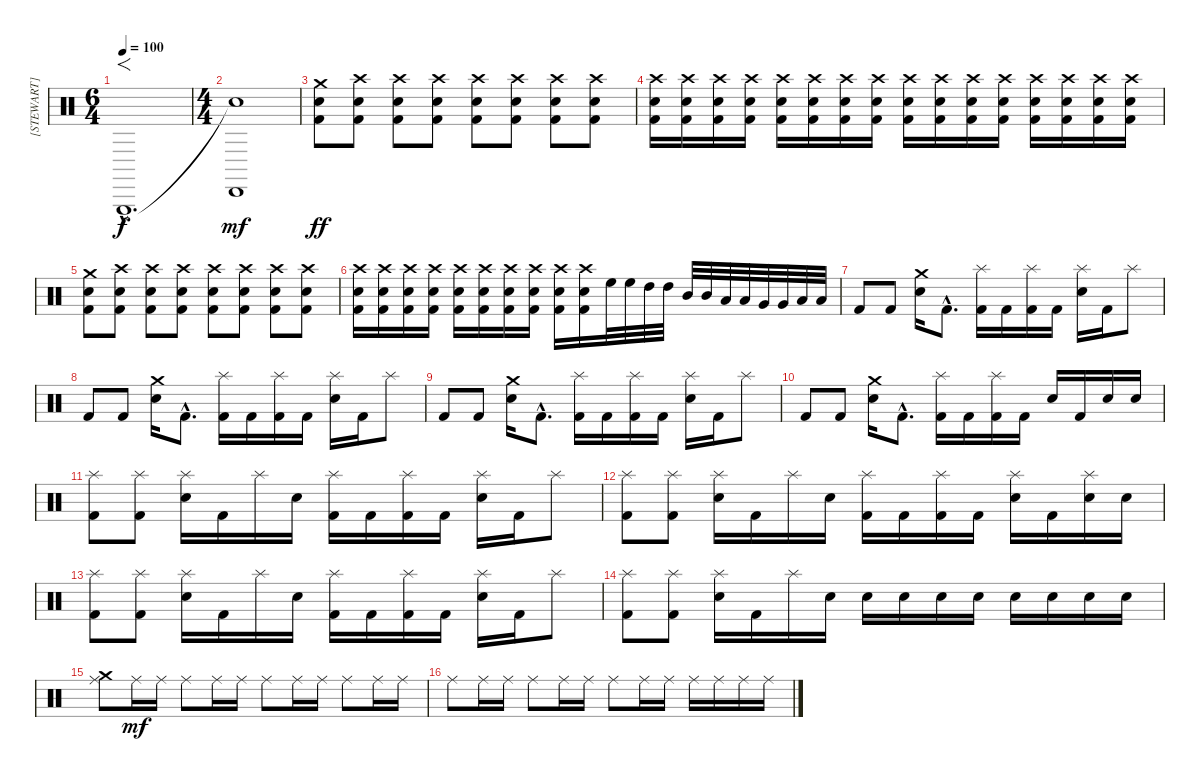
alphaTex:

\track ("[STEWART]" "[STEWART]") {instrument percussion}
\staff {score}
\articulation defaults
\ts (6 4)
\tempo 100
\clef neutral
\ks c "Triangle (hit)"{hac}.1{f d dy f}
|
\ts (4 4)
("Snare (hit)"{t} "Cabasa (hit)").1{dy mf} |
("Crash medium (hit)" "Electric Snare (hit)" "Kick (hit) 2").8{dy ff} ("Crash high (hit)" "Electric Snare (hit)" "Kick (hit) 2").8 ("Crash high (hit)" "Electric Snare (hit)" "Kick (hit) 2").8 ("Crash high (hit)" "Electric Snare (hit)" "Kick (hit) 2").8 ("Crash high (hit)" "Electric Snare (hit)" "Kick (hit) 2").8 ("Crash high (hit)" "Electric Snare (hit)" "Kick (hit) 2").8 ("Crash high (hit)" "Electric Snare (hit)" "Kick (hit) 2").8 ("Crash high (hit)" "Electric Snare (hit)" "Kick (hit) 2").8 |
("Crash high (hit)" "Electric Snare (hit)" "Kick (hit) 2").16 ("Crash high (hit)" "Electric Snare (hit)" "Kick (hit) 2").16 ("Crash high (hit)" "Electric Snare (hit)" "Kick (hit) 2").16 ("Crash high (hit)" "Electric Snare (hit)" "Kick (hit) 2").16 ("Crash high (hit)" "Electric Snare (hit)" "Kick (hit) 2").16 ("Crash high (hit)" "Electric Snare (hit)" "Kick (hit) 2").16 ("Crash high (hit)" "Electric Snare (hit)" "Kick (hit) 2").16 ("Crash high (hit)" "Electric Snare (hit)" "Kick (hit) 2").16 ("Crash high (hit)" "Electric Snare (hit)" "Kick (hit) 2").16 ("Crash high (hit)" "Electric Snare (hit)" "Kick (hit) 2").16 ("Crash high (hit)" "Electric Snare (hit)" "Kick (hit) 2").16 ("Crash high (hit)" "Electric Snare (hit)" "Kick (hit) 2").16 ("Crash high (hit)" "Electric Snare (hit)" "Kick (hit) 2").16 ("Crash high (hit)" "Electric Snare (hit)" "Kick (hit) 2").16 ("Crash high (hit)" "Electric Snare (hit)" "Kick (hit) 2").16 ("Crash high (hit)" "Electric Snare (hit)" "Kick (hit) 2").16 |
("Crash medium (hit)" "Electric Snare (hit)" "Kick (hit) 2").8 ("Crash high (hit)" "Electric Snare (hit)" "Kick (hit) 2").8 ("Crash high (hit)" "Electric Snare (hit)" "Kick (hit) 2").8 ("Crash high (hit)" "Electric Snare (hit)" "Kick (hit) 2").8 ("Crash high (hit)" "Electric Snare (hit)" "Kick (hit) 2").8 ("Crash high (hit)" "Electric Snare (hit)" "Kick (hit) 2").8 ("Crash high (hit)" "Electric Snare (hit)" "Kick (hit) 2").8 ("Crash high (hit)" "Electric Snare (hit)" "Kick (hit) 2").8 |
("Crash high (hit)" "Electric Snare (hit)" "Kick (hit) 2").16 ("Crash high (hit)" "Electric Snare (hit)" "Kick (hit) 2").16 ("Crash high (hit)" "Electric Snare (hit)" "Kick (hit) 2").16 ("Crash high (hit)" "Electric Snare (hit)" "Kick (hit) 2").16 ("Crash high (hit)" "Electric Snare (hit)" "Kick (hit) 2").16 ("Crash high (hit)" "Electric Snare (hit)" "Kick (hit) 2").16 ("Crash high (hit)" "Electric Snare (hit)" "Kick (hit) 2").16 ("Crash high (hit)" "Electric Snare (hit)" "Kick (hit) 2").16 ("Crash high (hit)" "Electric Snare (hit)" "Kick (hit) 2").16 ("Crash high (hit)" "Electric Snare (hit)" "Kick (hit) 2").16 "High Floor Tom (hit)".32 "High Floor Tom (hit)".32 "High Tom (hit)".32 "High Tom (hit)".32 "Mid Tom (hit)".32 "Mid Tom (hit)".32 "Low Tom (hit)".32 "Low Tom (hit)".32 "Very Low Tom (hit)".32 "Very Low Tom (hit)".32 "Low Floor Tom (hit)".32 "Low Floor Tom (hit)".32 |
"Kick (hit) 2".8 "Kick (hit) 2".8 ("Crash medium (hit)" "Electric Snare (hit)").16 "Kick (hit) 2"{hac}.8{d} ("Splash (hit)" "Kick (hit) 2").16 "Kick (hit) 2".16 ("Splash (hit)" "Kick (hit) 2").16 "Kick (hit) 2".16 ("Splash (hit)" "Electric Snare (hit)").16 "Kick (hit) 2".16 "Splash (hit)".8 |
"Kick (hit) 2".8 "Kick (hit) 2".8 ("Crash medium (hit)" "Electric Snare (hit)").16 "Kick (hit) 2"{hac}.8{d} ("Splash (hit)" "Kick (hit) 2").16 "Kick (hit) 2".16 ("Splash (hit)" "Kick (hit) 2").16 "Kick (hit) 2".16 ("Splash (hit)" "Electric Snare (hit)").16 "Kick (hit) 2".16 "Splash (hit)".8 |
"Kick (hit) 2".8 "Kick (hit) 2".8 ("Crash medium (hit)" "Electric Snare (hit)").16 "Kick (hit) 2"{hac}.8{d} ("Splash (hit)" "Kick (hit) 2").16 "Kick (hit) 2".16 ("Splash (hit)" "Kick (hit) 2").16 "Kick (hit) 2".16 ("Splash (hit)" "Electric Snare (hit)").16 "Kick (hit) 2".16 "Splash (hit)".8 |
"Kick (hit) 2".8 "Kick (hit) 2".8 ("Crash medium (hit)" "Electric Snare (hit)").16 "Kick (hit) 2"{hac}.8{d} ("Splash (hit)" "Kick (hit) 2").16 "Kick (hit) 2".16 ("Splash (hit)" "Kick (hit) 2").16 "Kick (hit) 2".16 "Electric Snare (hit)".16 "Kick (hit) 2".16 "Electric Snare (hit)".16 "Electric Snare (hit)".16 |
("Splash (hit)" "Kick (hit) 2").8 ("Splash (hit)" "Kick (hit) 2").8 ("Splash (hit)" "Electric Snare (hit)").16 "Kick (hit) 2".16 "Splash (hit)".16 "Electric Snare (hit)".16 ("Splash (hit)" "Kick (hit) 2").16 "Kick (hit) 2".16 ("Splash (hit)" "Kick (hit) 2").16 "Kick (hit) 2".16 ("Splash (hit)" "Electric Snare (hit)").16 "Kick (hit) 2".16 "Splash (hit)".8 |
("Splash (hit)" "Kick (hit) 2").8 ("Splash (hit)" "Kick (hit) 2").8 ("Splash (hit)" "Electric Snare (hit)").16 "Kick (hit) 2".16 "Splash (hit)".16 "Electric Snare (hit)".16 ("Splash (hit)" "Kick (hit) 2").16 "Kick (hit) 2".16 ("Splash (hit)" "Kick (hit) 2").16 "Kick (hit) 2".16 ("Splash (hit)" "Electric Snare (hit)").16 "Kick (hit) 2".16 ("Splash (hit)" "Electric Snare (hit)").16 "Electric Snare (hit)".16 |
("Splash (hit)" "Kick (hit) 2").8 ("Splash (hit)" "Kick (hit) 2").8 ("Splash (hit)" "Electric Snare (hit)").16 "Kick (hit) 2".16 "Splash (hit)".16 "Electric Snare (hit)".16 ("Splash (hit)" "Kick (hit) 2").16 "Kick (hit) 2".16 ("Splash (hit)" "Kick (hit) 2").16 "Kick (hit) 2".16 ("Splash (hit)" "Electric Snare (hit)").16 "Kick (hit) 2".16 "Splash (hit)".8 |
("Splash (hit)" "Kick (hit) 2").8 ("Splash (hit)" "Kick (hit) 2").8 ("Splash (hit)" "Electric Snare (hit)").16 "Kick (hit) 2".16 "Splash (hit)".16 "Electric Snare (hit)".16 "Electric Snare (hit)".16 "Electric Snare (hit)".16 "Electric Snare (hit)".16 "Electric Snare (hit)".16 "Electric Snare (hit)".16 "Electric Snare (hit)".16 "Electric Snare (hit)".16 "Electric Snare (hit)".16 |
("Ride (middle)" "Crash medium (hit)").8 "Ride (middle)".16{dy mf} "Ride (middle)".16 "Ride (middle)".8 "Ride (middle)".16 "Ride (middle)".16 "Ride (middle)".8 "Ride (middle)".16 "Ride (middle)".16 "Ride (middle)".8 "Ride (middle)".16 "Ride (middle)".16 |
"Ride (middle)".8 "Ride (middle)".16 "Ride (middle)".16 "Ride (middle)".8 "Ride (middle)".16 "Ride (middle)".16 "Ride (middle)".8 "Ride (middle)".16 "Ride (middle)".16 "Ride (middle)".16 "Ride (middle)".16 "Ride (middle)".16 "Ride (middle)".16
